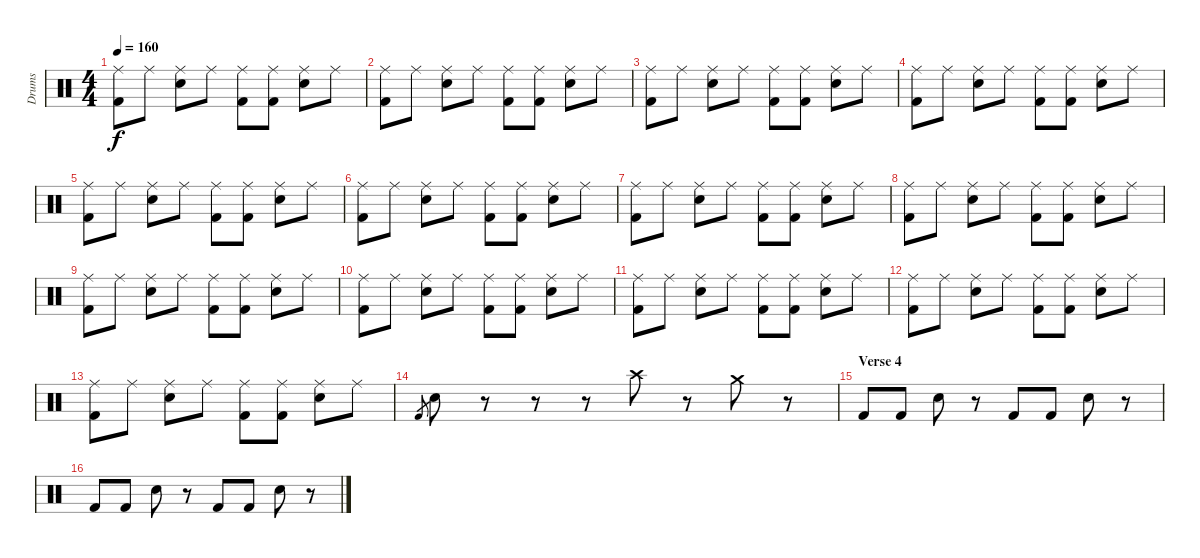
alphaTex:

\track ("Drums" "Drums") {instrument percussion}
\staff {score}
\articulation defaults
\ts (4 4)
\tempo 160
\clef neutral
\ks c
("Ride (middle)" "Kick (hit) 2").8{dy f} "Ride (middle)".8 ("Ride (middle)" "Electric Snare (hit)").8 "Ride (middle)".8 ("Ride (middle)" "Kick (hit) 2").8 ("Ride (middle)" "Kick (hit) 2").8 ("Ride (middle)" "Electric Snare (hit)").8 "Ride (middle)".8 |
("Ride (middle)" "Kick (hit) 2").8 "Ride (middle)".8 ("Ride (middle)" "Electric Snare (hit)").8 "Ride (middle)".8 ("Ride (middle)" "Kick (hit) 2").8 ("Ride (middle)" "Kick (hit) 2").8 ("Ride (middle)" "Electric Snare (hit)").8 "Ride (middle)".8 |
("Ride (middle)" "Kick (hit) 2").8 "Ride (middle)".8 ("Ride (middle)" "Electric Snare (hit)").8 "Ride (middle)".8 ("Ride (middle)" "Kick (hit) 2").8 ("Ride (middle)" "Kick (hit) 2").8 ("Ride (middle)" "Electric Snare (hit)").8 "Ride (middle)".8 |
("Ride (middle)" "Kick (hit) 2").8 "Ride (middle)".8 ("Ride (middle)" "Electric Snare (hit)").8 "Ride (middle)".8 ("Ride (middle)" "Kick (hit) 2").8 ("Ride (middle)" "Kick (hit) 2").8 ("Ride (middle)" "Electric Snare (hit)").8 "Ride (middle)".8 |
("Ride (middle)" "Kick (hit) 2").8 "Ride (middle)".8 ("Ride (middle)" "Electric Snare (hit)").8 "Ride (middle)".8 ("Ride (middle)" "Kick (hit) 2").8 ("Ride (middle)" "Kick (hit) 2").8 ("Ride (middle)" "Electric Snare (hit)").8 "Ride (middle)".8 |
("Ride (middle)" "Kick (hit) 2").8 "Ride (middle)".8 ("Ride (middle)" "Electric Snare (hit)").8 "Ride (middle)".8 ("Ride (middle)" "Kick (hit) 2").8 ("Ride (middle)" "Kick (hit) 2").8 ("Ride (middle)" "Electric Snare (hit)").8 "Ride (middle)".8 |
("Ride (middle)" "Kick (hit) 2").8 "Ride (middle)".8 ("Ride (middle)" "Electric Snare (hit)").8 "Ride (middle)".8 ("Ride (middle)" "Kick (hit) 2").8 ("Ride (middle)" "Kick (hit) 2").8 ("Ride (middle)" "Electric Snare (hit)").8 "Ride (middle)".8 |
("Ride (middle)" "Kick (hit) 2").8 "Ride (middle)".8 ("Ride (middle)" "Electric Snare (hit)").8 "Ride (middle)".8 ("Ride (middle)" "Kick (hit) 2").8 ("Ride (middle)" "Kick (hit) 2").8 ("Ride (middle)" "Electric Snare (hit)").8 "Ride (middle)".8 |
("Ride (middle)" "Kick (hit) 2").8 "Ride (middle)".8 ("Ride (middle)" "Electric Snare (hit)").8 "Ride (middle)".8 ("Ride (middle)" "Kick (hit) 2").8 ("Ride (middle)" "Kick (hit) 2").8 ("Ride (middle)" "Electric Snare (hit)").8 "Ride (middle)".8 |
("Ride (middle)" "Kick (hit) 2").8 "Ride (middle)".8 ("Ride (middle)" "Electric Snare (hit)").8 "Ride (middle)".8 ("Ride (middle)" "Kick (hit) 2").8 ("Ride (middle)" "Kick (hit) 2").8 ("Ride (middle)" "Electric Snare (hit)").8 "Ride (middle)".8 |
("Ride (middle)" "Kick (hit) 2").8 "Ride (middle)".8 ("Ride (middle)" "Electric Snare (hit)").8 "Ride (middle)".8 ("Ride (middle)" "Kick (hit) 2").8 ("Ride (middle)" "Kick (hit) 2").8 ("Ride (middle)" "Electric Snare (hit)").8 "Ride (middle)".8 |
("Ride (middle)" "Kick (hit) 2").8 "Ride (middle)".8 ("Ride (middle)" "Electric Snare (hit)").8 "Ride (middle)".8 ("Ride (middle)" "Kick (hit) 2").8 ("Ride (middle)" "Kick (hit) 2").8 ("Ride (middle)" "Electric Snare (hit)").8 "Ride (middle)".8 |
("Ride (middle)" "Kick (hit) 2").8 "Ride (middle)".8 ("Ride (middle)" "Electric Snare (hit)").8 "Ride (middle)".8 ("Ride (middle)" "Kick (hit) 2").8 ("Ride (middle)" "Kick (hit) 2").8 ("Ride (middle)" "Electric Snare (hit)").8 "Ride (middle)".8 |
"Kick (hit) 2".8{gr} "Electric Snare (hit)".8 r.8 r.8 r.8 "Crash high (hit)".8 r.8 "Crash medium (hit)".8 r.8 |
\section ("" "Verse 4")
"Kick (hit) 2".8 "Kick (hit) 2".8 "Electric Snare (hit)".8 r.8 "Kick (hit) 2".8 "Kick (hit) 2".8 "Electric Snare (hit)".8 r.8 |
"Kick (hit) 2".8 "Kick (hit) 2".8 "Electric Snare (hit)".8 r.8 "Kick (hit) 2".8 "Kick (hit) 2".8 "Electric Snare (hit)".8 r.8
